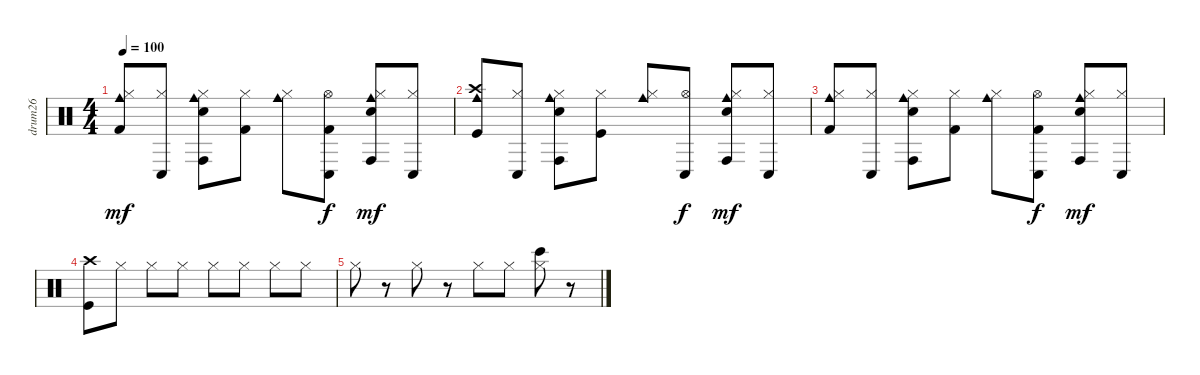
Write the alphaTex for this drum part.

\track ("drum26" "drum26") {instrument percussion}
\staff {score}
\articulation defaults
\ts (4 4)
\tempo 100
\clef neutral
\ks c
("Cowbell medium (hit)" "Hi-Hat (closed)" "Kick (hit) 2").8{dy mf} ("Hi-Hat (closed)" "Conga low (hit)").8 ("Conga high (hit)" "Electric Snare (hit)" "Hi-Hat (closed)" "Cowbell medium (hit)").8 ("Kick (hit) 2" "Hi-Hat (closed)").8 ("Cowbell medium (hit)" "Hi-Hat (closed)").8 ("Conga low (hit)" "Hi-Hat (open)" "Kick (hit) 2").8{dy f} ("Cowbell medium (hit)" "Electric Snare (hit)" "Hi-Hat (closed)" "Conga high (hit)").8{dy mf} ("Hi-Hat (closed)" "Conga low (hit)").8 |
("Crash high (hit)" "Cowbell medium (hit)" "Kick (hit)").8 ("Hi-Hat (closed)" "Conga low (hit)").8 ("Cowbell medium (hit)" "Electric Snare (hit)" "Hi-Hat (closed)" "Conga high (hit)").8 ("Kick (hit)" "Hi-Hat (closed)").8 ("Hi-Hat (closed)" "Cowbell medium (hit)").8 ("Conga low (hit)" "Hi-Hat (open)").8{dy f} ("Electric Snare (hit)" "Hi-Hat (closed)" "Cowbell medium (hit)" "Conga high (hit)").8{dy mf} ("Hi-Hat (closed)" "Conga low (hit)").8 |
("Cowbell medium (hit)" "Kick (hit) 2" "Hi-Hat (closed)").8 ("Hi-Hat (closed)" "Conga low (hit)").8 ("Electric Snare (hit)" "Hi-Hat (closed)" "Cowbell medium (hit)" "Conga high (hit)").8 ("Kick (hit) 2" "Hi-Hat (closed)").8 ("Hi-Hat (closed)" "Cowbell medium (hit)").8 ("Kick (hit) 2" "Hi-Hat (open)" "Conga low (hit)").8{dy f} ("Hi-Hat (closed)" "Cowbell medium (hit)" "Conga high (hit)" "Electric Snare (hit)").8{dy mf} ("Hi-Hat (closed)" "Conga low (hit)").8 |
("Crash high (hit)" "Kick (hit)").8 "Hi-Hat (closed)".8 "Hi-Hat (closed)".8 "Hi-Hat (closed)".8 "Hi-Hat (closed)".8 "Hi-Hat (closed)".8 "Hi-Hat (closed)".8 "Hi-Hat (closed)".8 |
"Hi-Hat (closed)".8 r.8 "Hi-Hat (closed)".8 r.8 "Hi-Hat (closed)".8 "Hi-Hat (closed)".8 ("Bongo High (hit)" "Hi-Hat (closed)").8 r.8
